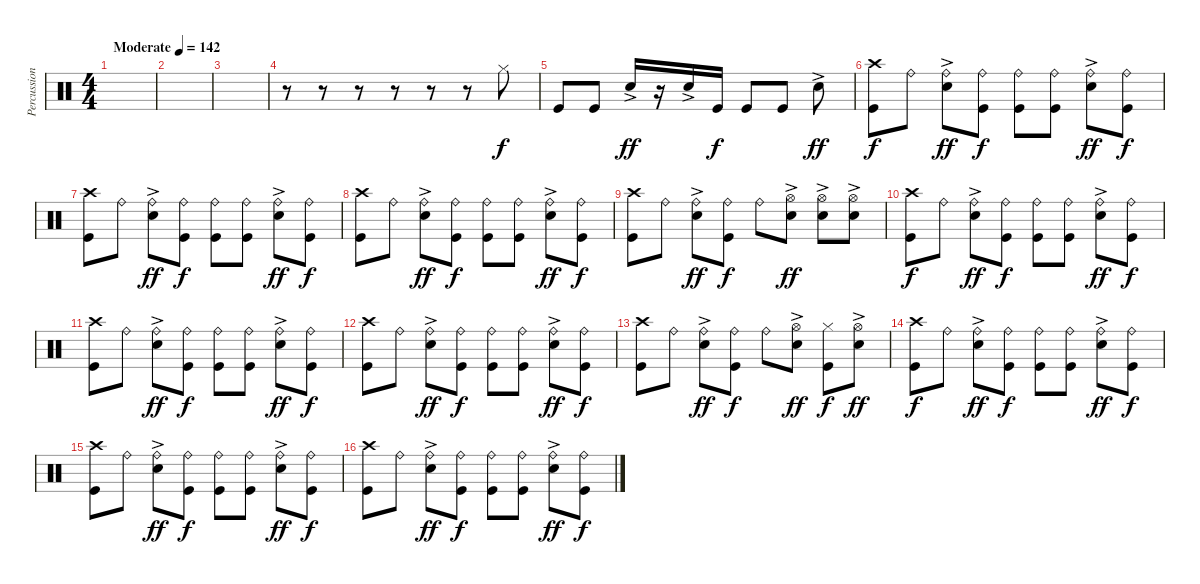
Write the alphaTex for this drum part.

\track ("Percussion" "Percussion") {instrument percussion}
\staff {score}
\articulation defaults
\ts (4 4)
\tempo (142 "Moderate")
\clef neutral
\ks c
|
|
|
r.8 r.8 r.8 r.8 r.8 r.8 "Hi-Hat (closed)".8 |
"Kick (hit)".8 "Kick (hit)".8 "Electric Snare (hit)"{ac}.16{dy ff} r.16 "Electric Snare (hit)"{ac}.16 "Kick (hit)".16{dy f} "Kick (hit)".8 "Kick (hit)".8 "Electric Snare (hit)"{ac}.8{dy ff} |
("Crash high (hit)" "Kick (hit)").8{dy f} "Ride (bell)".8 ("Ride (bell)" "Electric Snare (hit)"{ac}).8{dy ff} ("Ride (bell)" "Kick (hit)").8{dy f} ("Ride (bell)" "Kick (hit)").8 ("Ride (bell)" "Kick (hit)").8 ("Ride (bell)" "Electric Snare (hit)"{ac}).8{dy ff} ("Ride (bell)" "Kick (hit)").8{dy f} |
("Crash high (hit)" "Kick (hit)").8 "Ride (bell)".8 ("Ride (bell)" "Electric Snare (hit)"{ac}).8{dy ff} ("Ride (bell)" "Kick (hit)").8{dy f} ("Ride (bell)" "Kick (hit)").8 ("Ride (bell)" "Kick (hit)").8 ("Ride (bell)" "Electric Snare (hit)"{ac}).8{dy ff} ("Ride (bell)" "Kick (hit)").8{dy f} |
("Crash high (hit)" "Kick (hit)").8 "Ride (bell)".8 ("Ride (bell)" "Electric Snare (hit)"{ac}).8{dy ff} ("Ride (bell)" "Kick (hit)").8{dy f} ("Ride (bell)" "Kick (hit)").8 ("Ride (bell)" "Kick (hit)").8 ("Ride (bell)" "Electric Snare (hit)"{ac}).8{dy ff} ("Ride (bell)" "Kick (hit)").8{dy f} |
("Crash high (hit)" "Kick (hit)").8 "Ride (bell)".8 ("Ride (bell)" "Electric Snare (hit)"{ac}).8{dy ff} ("Ride (bell)" "Kick (hit)").8{dy f} "Ride (bell)".8 ("Hi-Hat (open)" "Electric Snare (hit)"{ac}).8{dy ff} ("Hi-Hat (open)" "Electric Snare (hit)"{ac}).8 ("Hi-Hat (open)" "Electric Snare (hit)"{ac}).8 |
("Crash high (hit)" "Kick (hit)").8{dy f} "Ride (bell)".8 ("Ride (bell)" "Electric Snare (hit)"{ac}).8{dy ff} ("Ride (bell)" "Kick (hit)").8{dy f} ("Ride (bell)" "Kick (hit)").8 ("Ride (bell)" "Kick (hit)").8 ("Ride (bell)" "Electric Snare (hit)"{ac}).8{dy ff} ("Ride (bell)" "Kick (hit)").8{dy f} |
("Crash high (hit)" "Kick (hit)").8 "Ride (bell)".8 ("Ride (bell)" "Electric Snare (hit)"{ac}).8{dy ff} ("Ride (bell)" "Kick (hit)").8{dy f} ("Ride (bell)" "Kick (hit)").8 ("Ride (bell)" "Kick (hit)").8 ("Ride (bell)" "Electric Snare (hit)"{ac}).8{dy ff} ("Ride (bell)" "Kick (hit)").8{dy f} |
("Crash high (hit)" "Kick (hit)").8 "Ride (bell)".8 ("Ride (bell)" "Electric Snare (hit)"{ac}).8{dy ff} ("Ride (bell)" "Kick (hit)").8{dy f} ("Ride (bell)" "Kick (hit)").8 ("Ride (bell)" "Kick (hit)").8 ("Ride (bell)" "Electric Snare (hit)"{ac}).8{dy ff} ("Ride (bell)" "Kick (hit)").8{dy f} |
("Crash high (hit)" "Kick (hit)").8 "Ride (bell)".8 ("Ride (bell)" "Electric Snare (hit)"{ac}).8{dy ff} ("Ride (bell)" "Kick (hit)").8{dy f} "Ride (bell)".8 ("Hi-Hat (open)" "Electric Snare (hit)"{ac}).8{dy ff} ("Hi-Hat (closed)" "Kick (hit)").8{dy f} ("Hi-Hat (open)" "Electric Snare (hit)"{ac}).8{dy ff} |
("Crash high (hit)" "Kick (hit)").8{dy f} "Ride (bell)".8 ("Ride (bell)" "Electric Snare (hit)"{ac}).8{dy ff} ("Ride (bell)" "Kick (hit)").8{dy f} ("Ride (bell)" "Kick (hit)").8 ("Ride (bell)" "Kick (hit)").8 ("Ride (bell)" "Electric Snare (hit)"{ac}).8{dy ff} ("Ride (bell)" "Kick (hit)").8{dy f} |
("Crash high (hit)" "Kick (hit)").8 "Ride (bell)".8 ("Ride (bell)" "Electric Snare (hit)"{ac}).8{dy ff} ("Ride (bell)" "Kick (hit)").8{dy f} ("Ride (bell)" "Kick (hit)").8 ("Ride (bell)" "Kick (hit)").8 ("Ride (bell)" "Electric Snare (hit)"{ac}).8{dy ff} ("Ride (bell)" "Kick (hit)").8{dy f} |
("Crash high (hit)" "Kick (hit)").8 "Ride (bell)".8 ("Ride (bell)" "Electric Snare (hit)"{ac}).8{dy ff} ("Ride (bell)" "Kick (hit)").8{dy f} ("Ride (bell)" "Kick (hit)").8 ("Ride (bell)" "Kick (hit)").8 ("Ride (bell)" "Electric Snare (hit)"{ac}).8{dy ff} ("Ride (bell)" "Kick (hit)").8{dy f}
